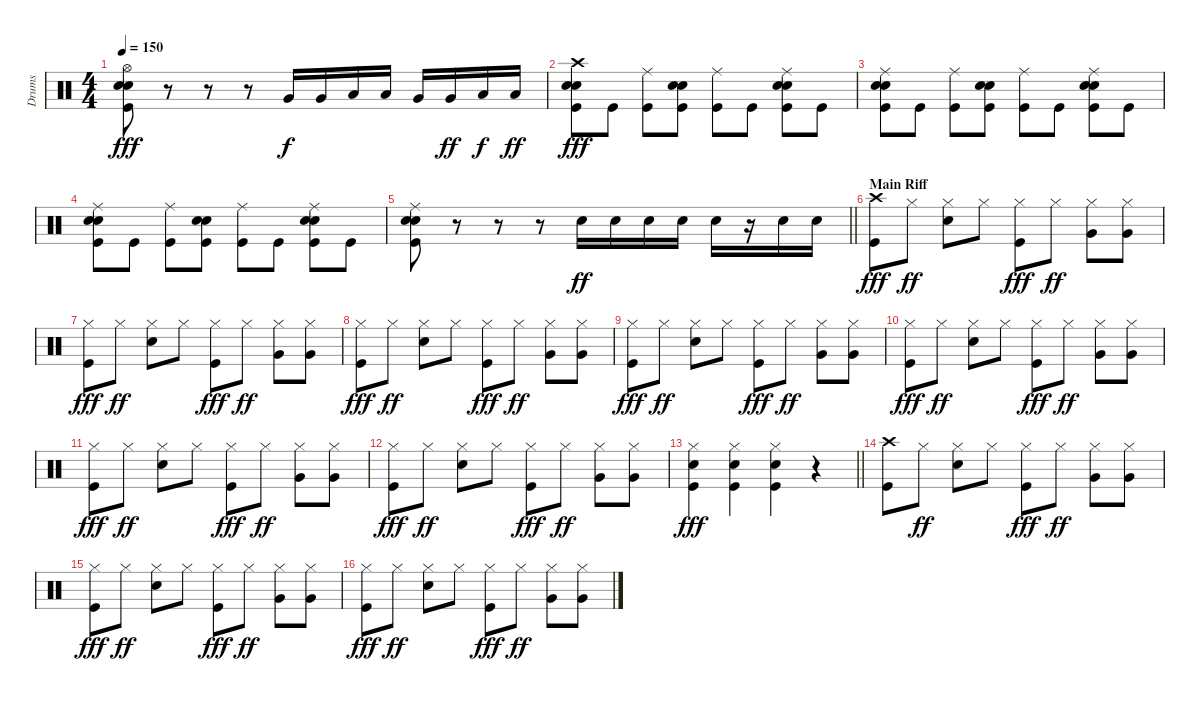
\track ("Drums" "Drums") {instrument percussion}
\staff {score}
\articulation defaults
\ts (4 4)
\tempo 150
\clef neutral
\ks c
("Hi-Hat (open)" "Electric Snare (hit)" "Snare (hit) 2" "Kick (hit)").8{dy fff} r.8 r.8 r.8 "Very Low Tom (hit)".16{dy f} "Very Low Tom (hit)".16 "Low Floor Tom (hit)".16 "Low Floor Tom (hit)".16 "Very Low Tom (hit)".16 "Very Low Tom (hit)".16{dy ff} "Low Floor Tom (hit)".16{dy f} "Low Floor Tom (hit)".16{dy ff} |
("Crash high (hit)" "Electric Snare (hit)" "Snare (hit) 2" "Kick (hit)").8{dy fff} "Kick (hit)".8 ("Ride (middle)" "Kick (hit)").8 ("Electric Snare (hit)" "Snare (hit) 2" "Kick (hit)").8 ("Ride (middle)" "Kick (hit)").8 "Kick (hit)".8 ("Ride (middle)" "Electric Snare (hit)" "Snare (hit) 2" "Kick (hit)").8 "Kick (hit)".8 |
("Ride (middle)" "Electric Snare (hit)" "Snare (hit) 2" "Kick (hit)").8 "Kick (hit)".8 ("Ride (middle)" "Kick (hit)").8 ("Electric Snare (hit)" "Snare (hit) 2" "Kick (hit)").8 ("Ride (middle)" "Kick (hit)").8 "Kick (hit)".8 ("Ride (middle)" "Electric Snare (hit)" "Snare (hit) 2" "Kick (hit)").8 "Kick (hit)".8 |
("Ride (middle)" "Electric Snare (hit)" "Snare (hit) 2" "Kick (hit)").8 "Kick (hit)".8 ("Ride (middle)" "Kick (hit)").8 ("Electric Snare (hit)" "Snare (hit) 2" "Kick (hit)").8 ("Ride (middle)" "Kick (hit)").8 "Kick (hit)".8 ("Ride (middle)" "Electric Snare (hit)" "Snare (hit) 2" "Kick (hit)").8 "Kick (hit)".8 |
\barLineRight lightlight
("Ride (middle)" "Electric Snare (hit)" "Snare (hit) 2" "Kick (hit)").8 r.8 r.8 r.8 "Electric Snare (hit)".16{dy ff} "Electric Snare (hit)".16 "Electric Snare (hit)".16 "Electric Snare (hit)".16 "Electric Snare (hit)".16 r.16 "Electric Snare (hit)".16 "Electric Snare (hit)".16 |
\section ("" "Main Riff")
("Crash high (hit)" "Kick (hit)").8{dy fff} "Hi-Hat (closed)".8{dy ff} ("Hi-Hat (closed)" "Snare (hit) 2").8 "Hi-Hat (closed)".8 ("Hi-Hat (closed)" "Kick (hit)").8{dy fff} "Hi-Hat (closed)".8{dy ff} ("Hi-Hat (closed)" "Very Low Tom (hit)").8 ("Hi-Hat (closed)" "Very Low Tom (hit)").8 |
("Hi-Hat (closed)" "Kick (hit)").8{dy fff} "Hi-Hat (closed)".8{dy ff} ("Hi-Hat (closed)" "Snare (hit) 2").8 "Hi-Hat (closed)".8 ("Hi-Hat (closed)" "Kick (hit)").8{dy fff} "Hi-Hat (closed)".8{dy ff} ("Hi-Hat (closed)" "Very Low Tom (hit)").8 ("Hi-Hat (closed)" "Very Low Tom (hit)").8 |
("Hi-Hat (closed)" "Kick (hit)").8{dy fff} "Hi-Hat (closed)".8{dy ff} ("Hi-Hat (closed)" "Snare (hit) 2").8 "Hi-Hat (closed)".8 ("Hi-Hat (closed)" "Kick (hit)").8{dy fff} "Hi-Hat (closed)".8{dy ff} ("Hi-Hat (closed)" "Very Low Tom (hit)").8 ("Hi-Hat (closed)" "Very Low Tom (hit)").8 |
("Hi-Hat (closed)" "Kick (hit)").8{dy fff} "Hi-Hat (closed)".8{dy ff} ("Hi-Hat (closed)" "Snare (hit) 2").8 "Hi-Hat (closed)".8 ("Hi-Hat (closed)" "Kick (hit)").8{dy fff} "Hi-Hat (closed)".8{dy ff} ("Hi-Hat (closed)" "Very Low Tom (hit)").8 ("Hi-Hat (closed)" "Very Low Tom (hit)").8 |
("Hi-Hat (closed)" "Kick (hit)").8{dy fff} "Hi-Hat (closed)".8{dy ff} ("Hi-Hat (closed)" "Snare (hit) 2").8 "Hi-Hat (closed)".8 ("Hi-Hat (closed)" "Kick (hit)").8{dy fff} "Hi-Hat (closed)".8{dy ff} ("Hi-Hat (closed)" "Very Low Tom (hit)").8 ("Hi-Hat (closed)" "Very Low Tom (hit)").8 |
("Hi-Hat (closed)" "Kick (hit)").8{dy fff} "Hi-Hat (closed)".8{dy ff} ("Hi-Hat (closed)" "Snare (hit) 2").8 "Hi-Hat (closed)".8 ("Hi-Hat (closed)" "Kick (hit)").8{dy fff} "Hi-Hat (closed)".8{dy ff} ("Hi-Hat (closed)" "Very Low Tom (hit)").8 ("Hi-Hat (closed)" "Very Low Tom (hit)").8 |
("Hi-Hat (closed)" "Kick (hit)").8{dy fff} "Hi-Hat (closed)".8{dy ff} ("Hi-Hat (closed)" "Snare (hit) 2").8 "Hi-Hat (closed)".8 ("Hi-Hat (closed)" "Kick (hit)").8{dy fff} "Hi-Hat (closed)".8{dy ff} ("Hi-Hat (closed)" "Very Low Tom (hit)").8 ("Hi-Hat (closed)" "Very Low Tom (hit)").8 |
\barLineRight lightlight
("Hi-Hat (closed)" "Snare (hit) 2" "Kick (hit)").4{dy fff} ("Hi-Hat (closed)" "Snare (hit) 2" "Kick (hit)").4 ("Hi-Hat (closed)" "Snare (hit) 2" "Kick (hit)").4 r.4 |
("Crash high (hit)" "Kick (hit)").8 "Hi-Hat (closed)".8{dy ff} ("Hi-Hat (closed)" "Snare (hit) 2").8 "Hi-Hat (closed)".8 ("Hi-Hat (closed)" "Kick (hit)").8{dy fff} "Hi-Hat (closed)".8{dy ff} ("Hi-Hat (closed)" "Very Low Tom (hit)").8 ("Hi-Hat (closed)" "Very Low Tom (hit)").8 |
("Hi-Hat (closed)" "Kick (hit)").8{dy fff} "Hi-Hat (closed)".8{dy ff} ("Hi-Hat (closed)" "Snare (hit) 2").8 "Hi-Hat (closed)".8 ("Hi-Hat (closed)" "Kick (hit)").8{dy fff} "Hi-Hat (closed)".8{dy ff} ("Hi-Hat (closed)" "Very Low Tom (hit)").8 ("Hi-Hat (closed)" "Very Low Tom (hit)").8 |
("Hi-Hat (closed)" "Kick (hit)").8{dy fff} "Hi-Hat (closed)".8{dy ff} ("Hi-Hat (closed)" "Snare (hit) 2").8 "Hi-Hat (closed)".8 ("Hi-Hat (closed)" "Kick (hit)").8{dy fff} "Hi-Hat (closed)".8{dy ff} ("Hi-Hat (closed)" "Very Low Tom (hit)").8 ("Hi-Hat (closed)" "Very Low Tom (hit)").8
